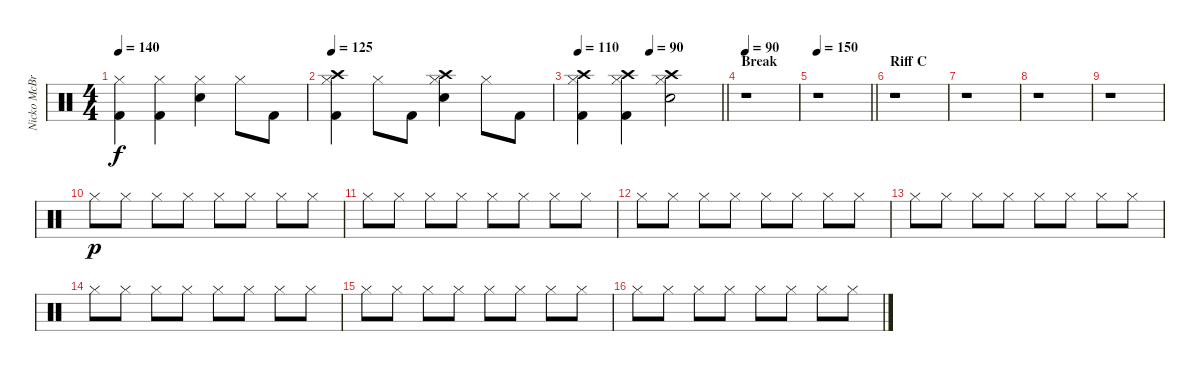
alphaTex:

\track ("Nicko McBrain" "Nicko McBr") {instrument percussion}
\staff {score}
\articulation defaults
\ts (4 4)
\tempo 140
\clef neutral
\ks c
("Kick (hit) 2" "Hi-Hat (closed)").4{dy f} ("Kick (hit) 2" "Hi-Hat (closed)").4 ("Snare (hit) 2" "Hi-Hat (closed)").4 "Hi-Hat (closed)".8 "Kick (hit) 2".8 |
\tempo 125
("Kick (hit) 2" "Crash high (hit)" "Hi-Hat (closed)").4 "Hi-Hat (closed)".8 "Kick (hit) 2".8 ("Snare (hit) 2" "Hi-Hat (closed)" "Crash high (hit)").4 "Hi-Hat (closed)".8 "Kick (hit) 2".8 |
\tempo 110
\tempo (90 0.5)
\barLineRight lightlight
("Kick (hit) 2" "Hi-Hat (closed)" "Crash high (hit)").4 ("Kick (hit) 2" "Hi-Hat (closed)" "Crash high (hit)").4 ("Snare (hit) 2" "Hi-Hat (closed)" "Crash high (hit)").2 |
\section ("" "Break")
\tempo 90
r.1 |
\tempo 150
\barLineRight lightlight
r.1 |
\section ("" "Riff C")
r.1 |
r.1 |
r.1 |
r.1 |
"Hi-Hat (closed)".8{dy p} "Hi-Hat (closed)".8 "Hi-Hat (closed)".8 "Hi-Hat (closed)".8 "Hi-Hat (closed)".8 "Hi-Hat (closed)".8 "Hi-Hat (closed)".8 "Hi-Hat (closed)".8 |
"Hi-Hat (closed)".8 "Hi-Hat (closed)".8 "Hi-Hat (closed)".8 "Hi-Hat (closed)".8 "Hi-Hat (closed)".8 "Hi-Hat (closed)".8 "Hi-Hat (closed)".8 "Hi-Hat (closed)".8 |
"Hi-Hat (closed)".8 "Hi-Hat (closed)".8 "Hi-Hat (closed)".8 "Hi-Hat (closed)".8 "Hi-Hat (closed)".8 "Hi-Hat (closed)".8 "Hi-Hat (closed)".8 "Hi-Hat (closed)".8 |
"Hi-Hat (closed)".8 "Hi-Hat (closed)".8 "Hi-Hat (closed)".8 "Hi-Hat (closed)".8 "Hi-Hat (closed)".8 "Hi-Hat (closed)".8 "Hi-Hat (closed)".8 "Hi-Hat (closed)".8 |
"Hi-Hat (closed)".8 "Hi-Hat (closed)".8 "Hi-Hat (closed)".8 "Hi-Hat (closed)".8 "Hi-Hat (closed)".8 "Hi-Hat (closed)".8 "Hi-Hat (closed)".8 "Hi-Hat (closed)".8 |
"Hi-Hat (closed)".8 "Hi-Hat (closed)".8 "Hi-Hat (closed)".8 "Hi-Hat (closed)".8 "Hi-Hat (closed)".8 "Hi-Hat (closed)".8 "Hi-Hat (closed)".8 "Hi-Hat (closed)".8 |
"Hi-Hat (closed)".8 "Hi-Hat (closed)".8 "Hi-Hat (closed)".8 "Hi-Hat (closed)".8 "Hi-Hat (closed)".8 "Hi-Hat (closed)".8 "Hi-Hat (closed)".8 "Hi-Hat (closed)".8
